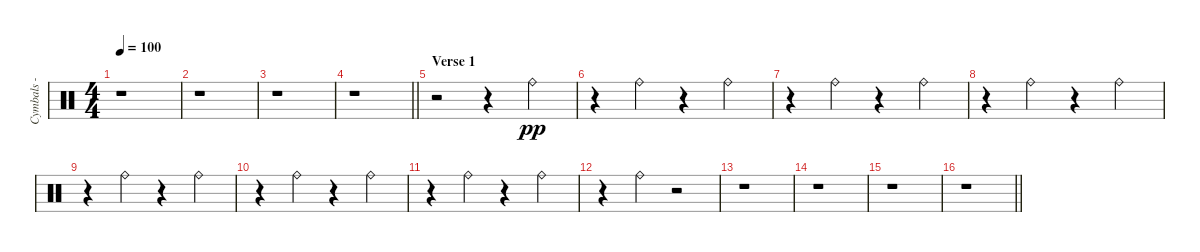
\track ("Cymbals - ride" "Cymbals - ") {instrument percussion}
\staff {score}
\articulation defaults
\ts (4 4)
\tempo 100
\clef neutral
\ks c
r.1{dy pp} |
r.1 |
r.1 |
\barLineRight lightlight
r.1 |
\section ("" "Verse 1")
r.2 r.4 "Ride (bell)".4{balance 4} |
r.4 "Ride (bell)".4 r.4 "Ride (bell)".4 |
r.4 "Ride (bell)".4 r.4 "Ride (bell)".4 |
r.4 "Ride (bell)".4 r.4 "Ride (bell)".4 |
r.4 "Ride (bell)".4 r.4 "Ride (bell)".4 |
r.4 "Ride (bell)".4 r.4 "Ride (bell)".4 |
r.4 "Ride (bell)".4 r.4 "Ride (bell)".4 |
r.4 "Ride (bell)".4 r.2 |
r.1 |
r.1 |
r.1 |
\barLineRight lightlight
r.1
